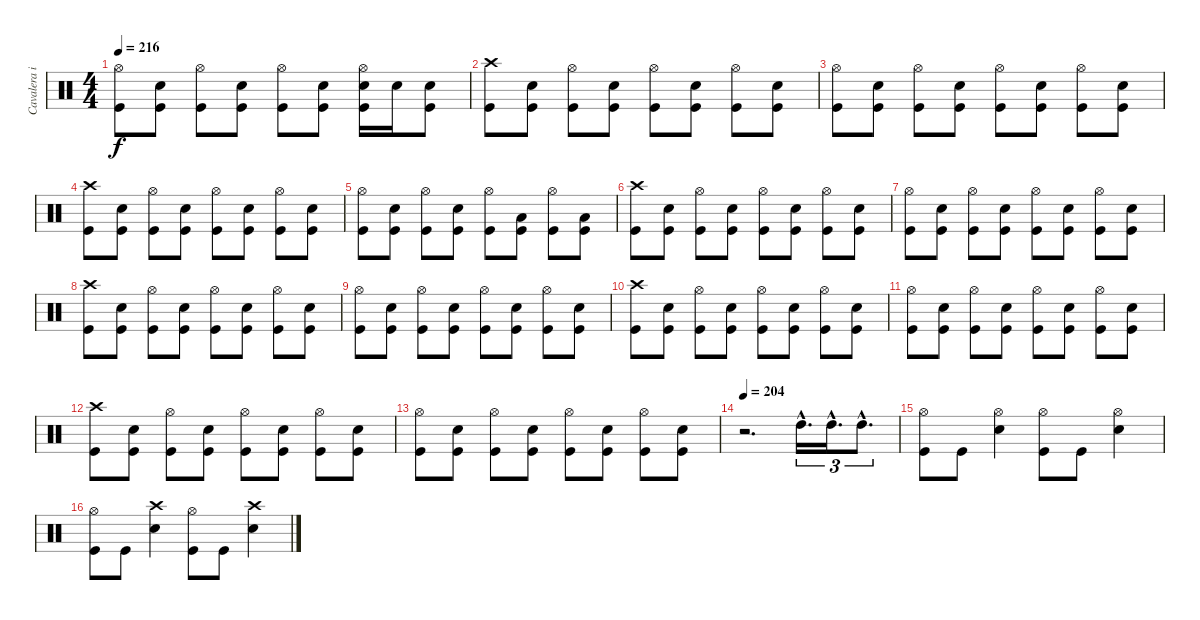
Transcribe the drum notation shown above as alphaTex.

\track ("Cavalera igor" "Cavalera i") {instrument percussion}
\staff {score}
\articulation defaults
\ts (4 4)
\tempo 216
\clef neutral
\ks c
("Hi-Hat (open)" "Kick (hit)").8{dy f} ("Electric Snare (hit)" "Kick (hit)").8 ("Hi-Hat (open)" "Kick (hit)").8 ("Electric Snare (hit)" "Kick (hit)").8 ("Hi-Hat (open)" "Kick (hit)").8 ("Electric Snare (hit)" "Kick (hit)").8 ("Hi-Hat (open)" "Electric Snare (hit)" "Kick (hit)").16 "Electric Snare (hit)".16 ("Electric Snare (hit)" "Kick (hit)").8 |
("Crash high (hit)" "Kick (hit)").8 ("Electric Snare (hit)" "Kick (hit)").8 ("Hi-Hat (open)" "Kick (hit)").8 ("Electric Snare (hit)" "Kick (hit)").8 ("Hi-Hat (open)" "Kick (hit)").8 ("Electric Snare (hit)" "Kick (hit)").8 ("Hi-Hat (open)" "Kick (hit)").8 ("Electric Snare (hit)" "Kick (hit)").8 |
("Hi-Hat (open)" "Kick (hit)").8 ("Electric Snare (hit)" "Kick (hit)").8 ("Hi-Hat (open)" "Kick (hit)").8 ("Electric Snare (hit)" "Kick (hit)").8 ("Hi-Hat (open)" "Kick (hit)").8 ("Electric Snare (hit)" "Kick (hit)").8 ("Hi-Hat (open)" "Kick (hit)").8 ("Electric Snare (hit)" "Kick (hit)").8 |
("Crash high (hit)" "Kick (hit)").8 ("Electric Snare (hit)" "Kick (hit)").8 ("Hi-Hat (open)" "Kick (hit)").8 ("Electric Snare (hit)" "Kick (hit)").8 ("Hi-Hat (open)" "Kick (hit)").8 ("Electric Snare (hit)" "Kick (hit)").8 ("Hi-Hat (open)" "Kick (hit)").8 ("Electric Snare (hit)" "Kick (hit)").8 |
("Hi-Hat (open)" "Kick (hit)").8 ("Electric Snare (hit)" "Kick (hit)").8 ("Hi-Hat (open)" "Kick (hit)").8 ("Electric Snare (hit)" "Kick (hit)").8 ("Hi-Hat (open)" "Kick (hit)").8 ("Low Tom (hit)" "Kick (hit)").8 ("Hi-Hat (open)" "Kick (hit)").8 ("Low Tom (hit)" "Kick (hit)").8 |
("Crash high (hit)" "Kick (hit)").8 ("Electric Snare (hit)" "Kick (hit)").8 ("Hi-Hat (open)" "Kick (hit)").8 ("Electric Snare (hit)" "Kick (hit)").8 ("Hi-Hat (open)" "Kick (hit)").8 ("Electric Snare (hit)" "Kick (hit)").8 ("Hi-Hat (open)" "Kick (hit)").8 ("Electric Snare (hit)" "Kick (hit)").8 |
("Hi-Hat (open)" "Kick (hit)").8 ("Electric Snare (hit)" "Kick (hit)").8 ("Hi-Hat (open)" "Kick (hit)").8 ("Electric Snare (hit)" "Kick (hit)").8 ("Hi-Hat (open)" "Kick (hit)").8 ("Electric Snare (hit)" "Kick (hit)").8 ("Hi-Hat (open)" "Kick (hit)").8 ("Electric Snare (hit)" "Kick (hit)").8 |
("Crash high (hit)" "Kick (hit)").8 ("Electric Snare (hit)" "Kick (hit)").8 ("Hi-Hat (open)" "Kick (hit)").8 ("Electric Snare (hit)" "Kick (hit)").8 ("Hi-Hat (open)" "Kick (hit)").8 ("Electric Snare (hit)" "Kick (hit)").8 ("Hi-Hat (open)" "Kick (hit)").8 ("Electric Snare (hit)" "Kick (hit)").8 |
("Hi-Hat (open)" "Kick (hit)").8 ("Electric Snare (hit)" "Kick (hit)").8 ("Hi-Hat (open)" "Kick (hit)").8 ("Electric Snare (hit)" "Kick (hit)").8 ("Hi-Hat (open)" "Kick (hit)").8 ("Electric Snare (hit)" "Kick (hit)").8 ("Hi-Hat (open)" "Kick (hit)").8 ("Electric Snare (hit)" "Kick (hit)").8 |
("Crash high (hit)" "Kick (hit)").8 ("Electric Snare (hit)" "Kick (hit)").8 ("Hi-Hat (open)" "Kick (hit)").8 ("Electric Snare (hit)" "Kick (hit)").8 ("Hi-Hat (open)" "Kick (hit)").8 ("Electric Snare (hit)" "Kick (hit)").8 ("Hi-Hat (open)" "Kick (hit)").8 ("Electric Snare (hit)" "Kick (hit)").8 |
("Hi-Hat (open)" "Kick (hit)").8 ("Electric Snare (hit)" "Kick (hit)").8 ("Hi-Hat (open)" "Kick (hit)").8 ("Electric Snare (hit)" "Kick (hit)").8 ("Hi-Hat (open)" "Kick (hit)").8 ("Electric Snare (hit)" "Kick (hit)").8 ("Hi-Hat (open)" "Kick (hit)").8 ("Electric Snare (hit)" "Kick (hit)").8 |
("Crash high (hit)" "Kick (hit)").8 ("Electric Snare (hit)" "Kick (hit)").8 ("Hi-Hat (open)" "Kick (hit)").8 ("Electric Snare (hit)" "Kick (hit)").8 ("Hi-Hat (open)" "Kick (hit)").8 ("Electric Snare (hit)" "Kick (hit)").8 ("Hi-Hat (open)" "Kick (hit)").8 ("Electric Snare (hit)" "Kick (hit)").8 |
("Hi-Hat (open)" "Kick (hit)").8 ("Electric Snare (hit)" "Kick (hit)").8 ("Hi-Hat (open)" "Kick (hit)").8 ("Electric Snare (hit)" "Kick (hit)").8 ("Hi-Hat (open)" "Kick (hit)").8 ("Electric Snare (hit)" "Kick (hit)").8 ("Hi-Hat (open)" "Kick (hit)").8 ("Electric Snare (hit)" "Kick (hit)").8 |
\tempo 204
r.2{d} "High Tom (hit)"{hac}.16{d tu (3 2)} "High Tom (hit)"{hac}.16{d tu (3 2)} "High Tom (hit)"{hac}.8{d tu (3 2)} |
("Hi-Hat (open)" "Kick (hit)").8 "Kick (hit)".8 ("Hi-Hat (open)" "Electric Snare (hit)").4 ("Hi-Hat (open)" "Kick (hit)").8 "Kick (hit)".8 ("Hi-Hat (open)" "Electric Snare (hit)").4 |
("Hi-Hat (open)" "Kick (hit)").8 "Kick (hit)".8 ("Crash high (hit)" "Electric Snare (hit)").4 ("Hi-Hat (open)" "Kick (hit)").8 "Kick (hit)".8 ("Crash high (hit)" "Electric Snare (hit)").4
